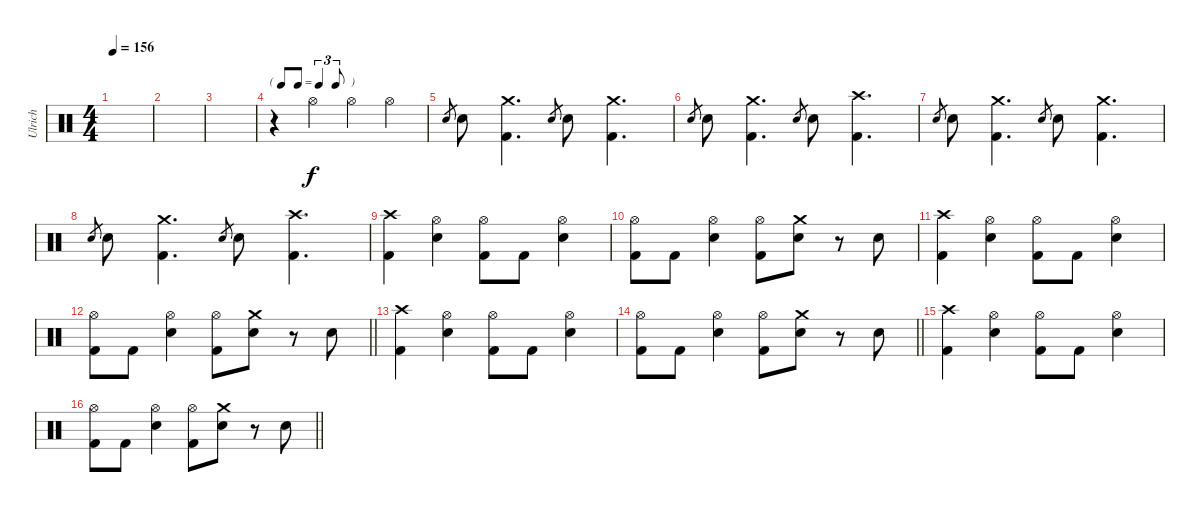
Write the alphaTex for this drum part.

\track ("Ulrich" "Ulrich") {instrument percussion}
\staff {score}
\articulation defaults
\ts (4 4)
\tempo 156
\clef neutral
\ks c
|
|
|
\tf triplet8th
r.4 "Hi-Hat (open)".4 "Hi-Hat (open)".4 "Hi-Hat (open)".4 |
"Electric Snare (hit)".8{gr} "Electric Snare (hit)".8 ("Crash medium (hit)" "Kick (hit) 2").4{d} "Electric Snare (hit)".8{gr} "Electric Snare (hit)".8 ("Crash medium (hit)" "Kick (hit) 2").4{d} |
"Electric Snare (hit)".8{gr} "Electric Snare (hit)".8 ("Crash medium (hit)" "Kick (hit) 2").4{d} "Electric Snare (hit)".8{gr} "Electric Snare (hit)".8 ("Crash high (hit)" "Kick (hit) 2").4{d} |
"Electric Snare (hit)".8{gr} "Electric Snare (hit)".8 ("Crash medium (hit)" "Kick (hit) 2").4{d} "Electric Snare (hit)".8{gr} "Electric Snare (hit)".8 ("Crash medium (hit)" "Kick (hit) 2").4{d} |
"Electric Snare (hit)".8{gr} "Electric Snare (hit)".8 ("Crash medium (hit)" "Kick (hit) 2").4{d} "Electric Snare (hit)".8{gr} "Electric Snare (hit)".8 ("Crash high (hit)" "Kick (hit) 2").4{d} |
("Crash high (hit)" "Kick (hit) 2").4 ("Hi-Hat (open)" "Electric Snare (hit)").4 ("Hi-Hat (open)" "Kick (hit) 2").8 "Kick (hit) 2".8 ("Hi-Hat (open)" "Electric Snare (hit)").4 |
("Hi-Hat (open)" "Kick (hit) 2").8 "Kick (hit) 2".8 ("Hi-Hat (open)" "Electric Snare (hit)").4 ("Hi-Hat (open)" "Kick (hit) 2").8 ("Crash medium (hit)" "Electric Snare (hit)").8 r.8 "Electric Snare (hit)".8 |
("Crash high (hit)" "Kick (hit) 2").4 ("Hi-Hat (open)" "Electric Snare (hit)").4 ("Hi-Hat (open)" "Kick (hit) 2").8 "Kick (hit) 2".8 ("Hi-Hat (open)" "Electric Snare (hit)").4 |
\barLineRight lightlight
("Hi-Hat (open)" "Kick (hit) 2").8 "Kick (hit) 2".8 ("Hi-Hat (open)" "Electric Snare (hit)").4 ("Hi-Hat (open)" "Kick (hit) 2").8 ("Crash medium (hit)" "Electric Snare (hit)").8 r.8 "Electric Snare (hit)".8 |
("Crash high (hit)" "Kick (hit) 2").4 ("Hi-Hat (open)" "Electric Snare (hit)").4 ("Hi-Hat (open)" "Kick (hit) 2").8 "Kick (hit) 2".8 ("Hi-Hat (open)" "Electric Snare (hit)").4 |
\barLineRight lightlight
("Hi-Hat (open)" "Kick (hit) 2").8 "Kick (hit) 2".8 ("Hi-Hat (open)" "Electric Snare (hit)").4 ("Hi-Hat (open)" "Kick (hit) 2").8 ("Crash medium (hit)" "Electric Snare (hit)").8 r.8 "Electric Snare (hit)".8 |
("Crash high (hit)" "Kick (hit) 2").4 ("Hi-Hat (open)" "Electric Snare (hit)").4 ("Hi-Hat (open)" "Kick (hit) 2").8 "Kick (hit) 2".8 ("Hi-Hat (open)" "Electric Snare (hit)").4 |
\barLineRight lightlight
("Hi-Hat (open)" "Kick (hit) 2").8 "Kick (hit) 2".8 ("Hi-Hat (open)" "Electric Snare (hit)").4 ("Hi-Hat (open)" "Kick (hit) 2").8 ("Crash medium (hit)" "Electric Snare (hit)").8 r.8 "Electric Snare (hit)".8
